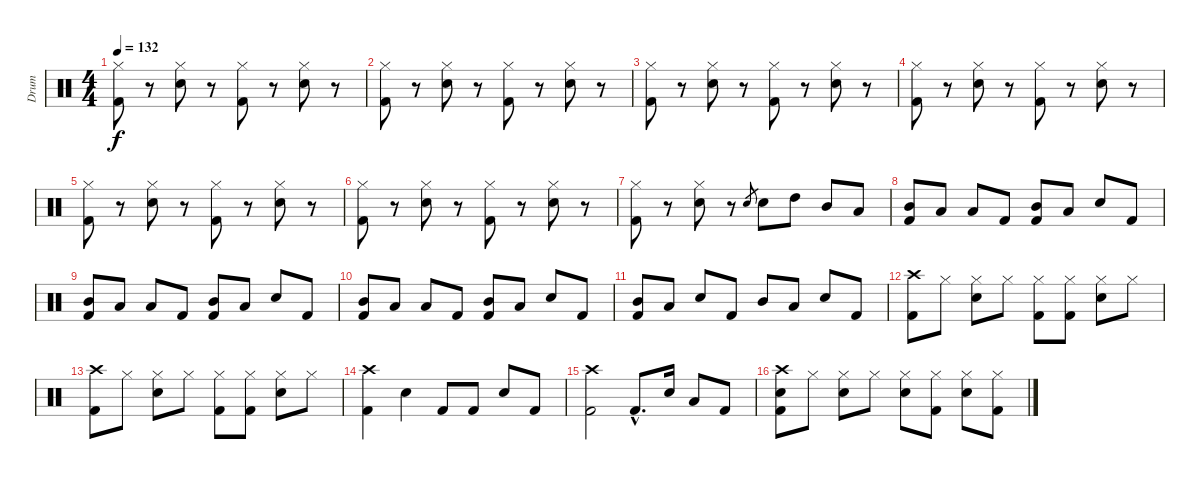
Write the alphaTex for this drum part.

\track ("Drum" "Drum") {instrument percussion}
\staff {score}
\articulation defaults
\ts (4 4)
\tempo 132
\clef neutral
\ks c
("Hi-Hat (closed)" "Kick (hit) 2").8{dy f} r.8 ("Hi-Hat (closed)" "Electric Snare (hit)").8 r.8 ("Hi-Hat (closed)" "Kick (hit) 2").8 r.8 ("Hi-Hat (closed)" "Electric Snare (hit)").8 r.8 |
("Hi-Hat (closed)" "Kick (hit) 2").8 r.8 ("Hi-Hat (closed)" "Electric Snare (hit)").8 r.8 ("Hi-Hat (closed)" "Kick (hit) 2").8 r.8 ("Hi-Hat (closed)" "Electric Snare (hit)").8 r.8 |
("Hi-Hat (closed)" "Kick (hit) 2").8 r.8 ("Hi-Hat (closed)" "Electric Snare (hit)").8 r.8 ("Hi-Hat (closed)" "Kick (hit) 2").8 r.8 ("Hi-Hat (closed)" "Electric Snare (hit)").8 r.8 |
("Hi-Hat (closed)" "Kick (hit) 2").8 r.8 ("Hi-Hat (closed)" "Electric Snare (hit)").8 r.8 ("Hi-Hat (closed)" "Kick (hit) 2").8 r.8 ("Hi-Hat (closed)" "Electric Snare (hit)").8 r.8 |
("Hi-Hat (closed)" "Kick (hit) 2").8 r.8 ("Hi-Hat (closed)" "Electric Snare (hit)").8 r.8 ("Hi-Hat (closed)" "Kick (hit) 2").8 r.8 ("Hi-Hat (closed)" "Electric Snare (hit)").8 r.8 |
("Hi-Hat (closed)" "Kick (hit) 2").8 r.8 ("Hi-Hat (closed)" "Electric Snare (hit)").8 r.8 ("Hi-Hat (closed)" "Kick (hit) 2").8 r.8 ("Hi-Hat (closed)" "Electric Snare (hit)").8 r.8 |
("Hi-Hat (closed)" "Kick (hit) 2").8 r.8 ("Hi-Hat (closed)" "Electric Snare (hit)").8 r.8 "Electric Snare (hit)".8{gr} "Electric Snare (hit)".8 "High Tom (hit)".8 "Mid Tom (hit)".8 "Low Tom (hit)".8 |
("Mid Tom (hit)" "Kick (hit) 2").8 "Low Tom (hit)".8 "Low Floor Tom (hit)".8 "Kick (hit) 2".8 ("Mid Tom (hit)" "Kick (hit) 2").8 "Low Tom (hit)".8 "Electric Snare (hit)".8 "Kick (hit) 2".8 |
("Mid Tom (hit)" "Kick (hit) 2").8 "Low Tom (hit)".8 "Low Floor Tom (hit)".8 "Kick (hit) 2".8 ("Mid Tom (hit)" "Kick (hit) 2").8 "Low Tom (hit)".8 "Electric Snare (hit)".8 "Kick (hit) 2".8 |
("Mid Tom (hit)" "Kick (hit) 2").8 "Low Tom (hit)".8 "Low Floor Tom (hit)".8 "Kick (hit) 2".8 ("Mid Tom (hit)" "Kick (hit) 2").8 "Low Tom (hit)".8 "Electric Snare (hit)".8 "Kick (hit) 2".8 |
("Mid Tom (hit)" "Kick (hit) 2").8 "Low Tom (hit)".8 "Electric Snare (hit)".8 "Kick (hit) 2".8 "Mid Tom (hit)".8 "Low Tom (hit)".8 "Electric Snare (hit)".8 "Kick (hit) 2".8 |
("Crash high (hit)" "Kick (hit) 2").8 "Hi-Hat (closed)".8 ("Hi-Hat (closed)" "Electric Snare (hit)").8 "Hi-Hat (closed)".8 ("Hi-Hat (closed)" "Kick (hit) 2").8 ("Hi-Hat (closed)" "Kick (hit) 2").8 ("Hi-Hat (closed)" "Electric Snare (hit)").8 "Hi-Hat (closed)".8 |
("Crash high (hit)" "Kick (hit) 2").8 "Hi-Hat (closed)".8 ("Hi-Hat (closed)" "Electric Snare (hit)").8 "Hi-Hat (closed)".8 ("Hi-Hat (closed)" "Kick (hit) 2").8 ("Hi-Hat (closed)" "Kick (hit) 2").8 ("Hi-Hat (closed)" "Electric Snare (hit)").8 "Hi-Hat (closed)".8 |
("Crash high (hit)" "Kick (hit) 2").4 "Electric Snare (hit)".4 "Kick (hit) 2".8 "Kick (hit) 2".8 "Electric Snare (hit)".8 "Kick (hit) 2".8 |
("Crash high (hit)" "Kick (hit) 2").2 "Kick (hit) 2"{hac}.8{d} "Electric Snare (hit)".16 "Low Tom (hit)".8 "Kick (hit) 2".8 |
("Crash high (hit)" "Electric Snare (hit)" "Kick (hit) 2").8 "Hi-Hat (closed)".8 ("Hi-Hat (closed)" "Electric Snare (hit)").8 "Hi-Hat (closed)".8 ("Hi-Hat (closed)" "Electric Snare (hit)").8 ("Hi-Hat (closed)" "Kick (hit) 2").8 ("Hi-Hat (closed)" "Electric Snare (hit)").8 ("Hi-Hat (closed)" "Kick (hit) 2").8
